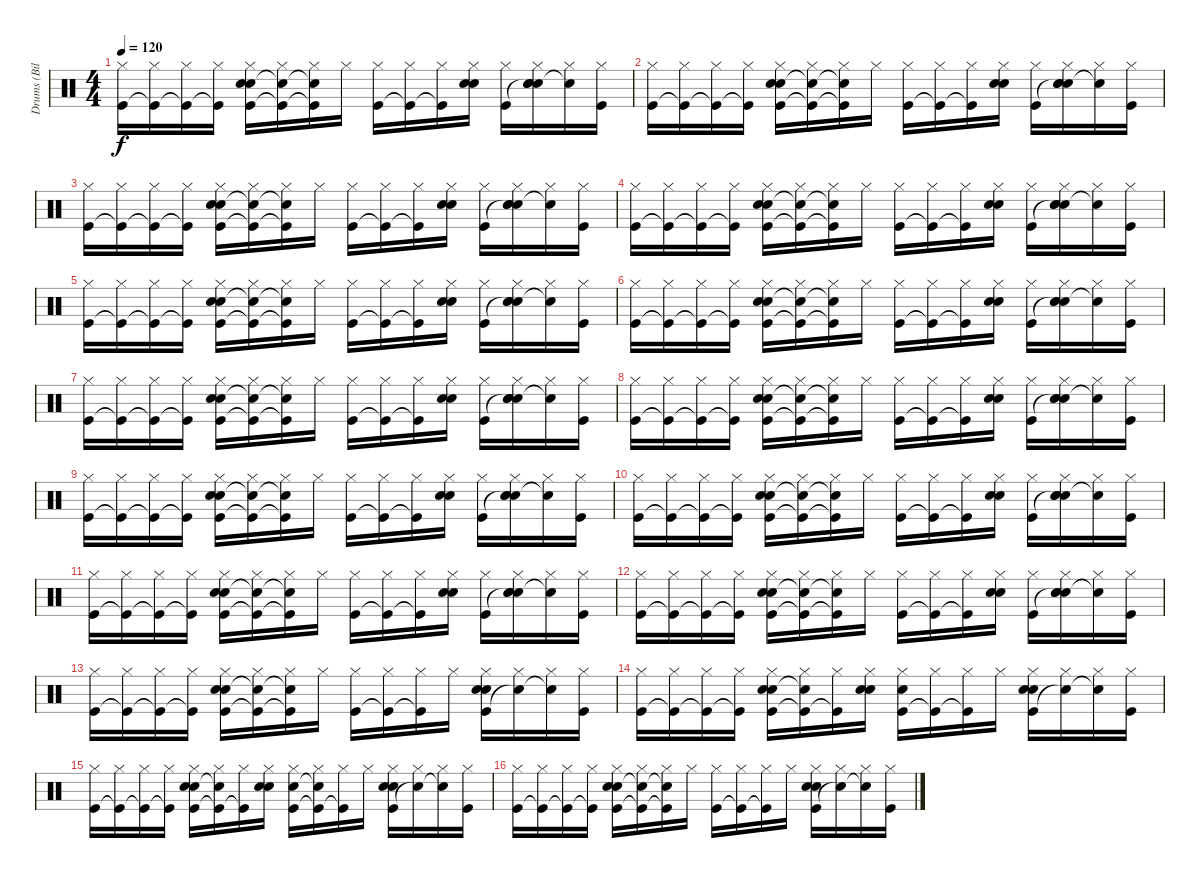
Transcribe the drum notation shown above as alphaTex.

\track ("Drums (Bilerman)" "Drums (Bil") {instrument percussion}
\staff {score}
\articulation defaults
\ts (4 4)
\tempo 120
\clef neutral
\ks c
("Kick (hit)" "Hi-Hat (closed)").16{dy f} ("Kick (hit)"{t} "Hi-Hat (closed)").16 ("Kick (hit)"{t} "Hi-Hat (closed)").16 ("Kick (hit)"{t} "Hi-Hat (closed)").16 ("Kick (hit)" "Snare (hit) 2" "Snare (hit) 2" "Hi-Hat (closed)").16 ("Kick (hit)"{t} "Snare (hit) 2"{t} "Hi-Hat (closed)").16 ("Kick (hit)"{t} "Snare (hit) 2"{t} "Hi-Hat (closed)").16 "Hi-Hat (closed)".16 ("Kick (hit)" "Hi-Hat (closed)").16 ("Kick (hit)"{t} "Hi-Hat (closed)").16 ("Kick (hit)"{t} "Hi-Hat (closed)").16 ("Snare (hit) 2" "Snare (hit) 2" "Hi-Hat (closed)").16 ("Kick (hit)" "Hi-Hat (closed)").16 ("Snare (hit)"{t} "Snare (hit) 2" "Snare (hit) 2" "Hi-Hat (closed)").16 ("Snare (hit) 2"{t} "Hi-Hat (closed)").16 ("Kick (hit)" "Hi-Hat (closed)").16 |
("Kick (hit)" "Hi-Hat (closed)").16 ("Kick (hit)"{t} "Hi-Hat (closed)").16 ("Kick (hit)"{t} "Hi-Hat (closed)").16 ("Kick (hit)"{t} "Hi-Hat (closed)").16 ("Kick (hit)" "Snare (hit) 2" "Snare (hit) 2" "Hi-Hat (closed)").16 ("Kick (hit)"{t} "Snare (hit) 2"{t} "Hi-Hat (closed)").16 ("Kick (hit)"{t} "Snare (hit) 2"{t} "Hi-Hat (closed)").16 "Hi-Hat (closed)".16 ("Kick (hit)" "Hi-Hat (closed)").16 ("Kick (hit)"{t} "Hi-Hat (closed)").16 ("Kick (hit)"{t} "Hi-Hat (closed)").16 ("Snare (hit) 2" "Snare (hit) 2" "Hi-Hat (closed)").16 ("Kick (hit)" "Hi-Hat (closed)").16 ("Snare (hit)"{t} "Snare (hit) 2" "Snare (hit) 2" "Hi-Hat (closed)").16 ("Snare (hit) 2"{t} "Hi-Hat (closed)").16 ("Kick (hit)" "Hi-Hat (closed)").16 |
("Kick (hit)" "Hi-Hat (closed)").16 ("Kick (hit)"{t} "Hi-Hat (closed)").16 ("Kick (hit)"{t} "Hi-Hat (closed)").16 ("Kick (hit)"{t} "Hi-Hat (closed)").16 ("Kick (hit)" "Snare (hit) 2" "Snare (hit) 2" "Hi-Hat (closed)").16 ("Kick (hit)"{t} "Snare (hit) 2"{t} "Hi-Hat (closed)").16 ("Kick (hit)"{t} "Snare (hit) 2"{t} "Hi-Hat (closed)").16 "Hi-Hat (closed)".16 ("Kick (hit)" "Hi-Hat (closed)").16 ("Kick (hit)"{t} "Hi-Hat (closed)").16 ("Kick (hit)"{t} "Hi-Hat (closed)").16 ("Snare (hit) 2" "Snare (hit) 2" "Hi-Hat (closed)").16 ("Kick (hit)" "Hi-Hat (closed)").16 ("Snare (hit)"{t} "Snare (hit) 2" "Snare (hit) 2" "Hi-Hat (closed)").16 ("Snare (hit) 2"{t} "Hi-Hat (closed)").16 ("Kick (hit)" "Hi-Hat (closed)").16 |
("Kick (hit)" "Hi-Hat (closed)").16 ("Kick (hit)"{t} "Hi-Hat (closed)").16 ("Kick (hit)"{t} "Hi-Hat (closed)").16 ("Kick (hit)"{t} "Hi-Hat (closed)").16 ("Kick (hit)" "Snare (hit) 2" "Snare (hit) 2" "Hi-Hat (closed)").16 ("Kick (hit)"{t} "Snare (hit) 2"{t} "Hi-Hat (closed)").16 ("Kick (hit)"{t} "Snare (hit) 2"{t} "Hi-Hat (closed)").16 "Hi-Hat (closed)".16 ("Kick (hit)" "Hi-Hat (closed)").16 ("Kick (hit)"{t} "Hi-Hat (closed)").16 ("Kick (hit)"{t} "Hi-Hat (closed)").16 ("Snare (hit) 2" "Snare (hit) 2" "Hi-Hat (closed)").16 ("Kick (hit)" "Hi-Hat (closed)").16 ("Snare (hit)"{t} "Snare (hit) 2" "Snare (hit) 2" "Hi-Hat (closed)").16 ("Snare (hit) 2"{t} "Hi-Hat (closed)").16 ("Kick (hit)" "Hi-Hat (closed)").16 |
("Kick (hit)" "Hi-Hat (closed)").16 ("Kick (hit)"{t} "Hi-Hat (closed)").16 ("Kick (hit)"{t} "Hi-Hat (closed)").16 ("Kick (hit)"{t} "Hi-Hat (closed)").16 ("Kick (hit)" "Snare (hit) 2" "Snare (hit) 2" "Hi-Hat (closed)").16 ("Kick (hit)"{t} "Snare (hit) 2"{t} "Hi-Hat (closed)").16 ("Kick (hit)"{t} "Snare (hit) 2"{t} "Hi-Hat (closed)").16 "Hi-Hat (closed)".16 ("Kick (hit)" "Hi-Hat (closed)").16 ("Kick (hit)"{t} "Hi-Hat (closed)").16 ("Kick (hit)"{t} "Hi-Hat (closed)").16 ("Snare (hit) 2" "Snare (hit) 2" "Hi-Hat (closed)").16 ("Kick (hit)" "Hi-Hat (closed)").16 ("Snare (hit)"{t} "Snare (hit) 2" "Snare (hit) 2" "Hi-Hat (closed)").16 ("Snare (hit) 2"{t} "Hi-Hat (closed)").16 ("Kick (hit)" "Hi-Hat (closed)").16 |
("Kick (hit)" "Hi-Hat (closed)").16 ("Kick (hit)"{t} "Hi-Hat (closed)").16 ("Kick (hit)"{t} "Hi-Hat (closed)").16 ("Kick (hit)"{t} "Hi-Hat (closed)").16 ("Kick (hit)" "Snare (hit) 2" "Snare (hit) 2" "Hi-Hat (closed)").16 ("Kick (hit)"{t} "Snare (hit) 2"{t} "Hi-Hat (closed)").16 ("Kick (hit)"{t} "Snare (hit) 2"{t} "Hi-Hat (closed)").16 "Hi-Hat (closed)".16 ("Kick (hit)" "Hi-Hat (closed)").16 ("Kick (hit)"{t} "Hi-Hat (closed)").16 ("Kick (hit)"{t} "Hi-Hat (closed)").16 ("Snare (hit) 2" "Snare (hit) 2" "Hi-Hat (closed)").16 ("Kick (hit)" "Hi-Hat (closed)").16 ("Snare (hit)"{t} "Snare (hit) 2" "Snare (hit) 2" "Hi-Hat (closed)").16 ("Snare (hit) 2"{t} "Hi-Hat (closed)").16 ("Kick (hit)" "Hi-Hat (closed)").16 |
("Kick (hit)" "Hi-Hat (closed)").16 ("Kick (hit)"{t} "Hi-Hat (closed)").16 ("Kick (hit)"{t} "Hi-Hat (closed)").16 ("Kick (hit)"{t} "Hi-Hat (closed)").16 ("Kick (hit)" "Snare (hit) 2" "Snare (hit) 2" "Hi-Hat (closed)").16 ("Kick (hit)"{t} "Snare (hit) 2"{t} "Hi-Hat (closed)").16 ("Kick (hit)"{t} "Snare (hit) 2"{t} "Hi-Hat (closed)").16 "Hi-Hat (closed)".16 ("Kick (hit)" "Hi-Hat (closed)").16 ("Kick (hit)"{t} "Hi-Hat (closed)").16 ("Kick (hit)"{t} "Hi-Hat (closed)").16 ("Snare (hit) 2" "Snare (hit) 2" "Hi-Hat (closed)").16 ("Kick (hit)" "Hi-Hat (closed)").16 ("Snare (hit)"{t} "Snare (hit) 2" "Snare (hit) 2" "Hi-Hat (closed)").16 ("Snare (hit) 2"{t} "Hi-Hat (closed)").16 ("Kick (hit)" "Hi-Hat (closed)").16 |
("Kick (hit)" "Hi-Hat (closed)").16 ("Kick (hit)"{t} "Hi-Hat (closed)").16 ("Kick (hit)"{t} "Hi-Hat (closed)").16 ("Kick (hit)"{t} "Hi-Hat (closed)").16 ("Kick (hit)" "Snare (hit) 2" "Snare (hit) 2" "Hi-Hat (closed)").16 ("Kick (hit)"{t} "Snare (hit) 2"{t} "Hi-Hat (closed)").16 ("Kick (hit)"{t} "Snare (hit) 2"{t} "Hi-Hat (closed)").16 "Hi-Hat (closed)".16 ("Kick (hit)" "Hi-Hat (closed)").16 ("Kick (hit)"{t} "Hi-Hat (closed)").16 ("Kick (hit)"{t} "Hi-Hat (closed)").16 ("Snare (hit) 2" "Snare (hit) 2" "Hi-Hat (closed)").16 ("Kick (hit)" "Hi-Hat (closed)").16 ("Snare (hit)"{t} "Snare (hit) 2" "Snare (hit) 2" "Hi-Hat (closed)").16 ("Snare (hit) 2"{t} "Hi-Hat (closed)").16 ("Kick (hit)" "Hi-Hat (closed)").16 |
("Kick (hit)" "Hi-Hat (closed)").16 ("Kick (hit)"{t} "Hi-Hat (closed)").16 ("Kick (hit)"{t} "Hi-Hat (closed)").16 ("Kick (hit)"{t} "Hi-Hat (closed)").16 ("Kick (hit)" "Snare (hit) 2" "Snare (hit) 2" "Hi-Hat (closed)").16 ("Kick (hit)"{t} "Snare (hit) 2"{t} "Hi-Hat (closed)").16 ("Kick (hit)"{t} "Snare (hit) 2"{t} "Hi-Hat (closed)").16 "Hi-Hat (closed)".16 ("Kick (hit)" "Hi-Hat (closed)").16 ("Kick (hit)"{t} "Hi-Hat (closed)").16 ("Kick (hit)"{t} "Hi-Hat (closed)").16 ("Snare (hit) 2" "Snare (hit) 2" "Hi-Hat (closed)").16 ("Kick (hit)" "Hi-Hat (closed)").16 ("Snare (hit)"{t} "Snare (hit) 2" "Snare (hit) 2" "Hi-Hat (closed)").16 ("Snare (hit) 2"{t} "Hi-Hat (closed)").16 ("Kick (hit)" "Hi-Hat (closed)").16 |
("Kick (hit)" "Hi-Hat (closed)").16 ("Kick (hit)"{t} "Hi-Hat (closed)").16 ("Kick (hit)"{t} "Hi-Hat (closed)").16 ("Kick (hit)"{t} "Hi-Hat (closed)").16 ("Kick (hit)" "Snare (hit) 2" "Snare (hit) 2" "Hi-Hat (closed)").16 ("Kick (hit)"{t} "Snare (hit) 2"{t} "Hi-Hat (closed)").16 ("Kick (hit)"{t} "Snare (hit) 2"{t} "Hi-Hat (closed)").16 "Hi-Hat (closed)".16 ("Kick (hit)" "Hi-Hat (closed)").16 ("Kick (hit)"{t} "Hi-Hat (closed)").16 ("Kick (hit)"{t} "Hi-Hat (closed)").16 ("Snare (hit) 2" "Snare (hit) 2" "Hi-Hat (closed)").16 ("Kick (hit)" "Hi-Hat (closed)").16 ("Snare (hit)"{t} "Snare (hit) 2" "Snare (hit) 2" "Hi-Hat (closed)").16 ("Snare (hit) 2"{t} "Hi-Hat (closed)").16 ("Kick (hit)" "Hi-Hat (closed)").16 |
("Kick (hit)" "Hi-Hat (closed)").16 ("Kick (hit)"{t} "Hi-Hat (closed)").16 ("Kick (hit)"{t} "Hi-Hat (closed)").16 ("Kick (hit)"{t} "Hi-Hat (closed)").16 ("Kick (hit)" "Snare (hit) 2" "Snare (hit) 2" "Hi-Hat (closed)").16 ("Kick (hit)"{t} "Snare (hit) 2"{t} "Hi-Hat (closed)").16 ("Kick (hit)"{t} "Snare (hit) 2"{t} "Hi-Hat (closed)").16 "Hi-Hat (closed)".16 ("Kick (hit)" "Hi-Hat (closed)").16 ("Kick (hit)"{t} "Hi-Hat (closed)").16 ("Kick (hit)"{t} "Hi-Hat (closed)").16 ("Snare (hit) 2" "Snare (hit) 2" "Hi-Hat (closed)").16 ("Kick (hit)" "Hi-Hat (closed)").16 ("Snare (hit)"{t} "Snare (hit) 2" "Snare (hit) 2" "Hi-Hat (closed)").16 ("Snare (hit) 2"{t} "Hi-Hat (closed)").16 ("Kick (hit)" "Hi-Hat (closed)").16 |
("Kick (hit)" "Hi-Hat (closed)").16 ("Kick (hit)"{t} "Hi-Hat (closed)").16 ("Kick (hit)"{t} "Hi-Hat (closed)").16 ("Kick (hit)"{t} "Hi-Hat (closed)").16 ("Kick (hit)" "Snare (hit) 2" "Snare (hit) 2" "Hi-Hat (closed)").16 ("Kick (hit)"{t} "Snare (hit) 2"{t} "Hi-Hat (closed)").16 ("Kick (hit)"{t} "Snare (hit) 2"{t} "Hi-Hat (closed)").16 "Hi-Hat (closed)".16 ("Kick (hit)" "Hi-Hat (closed)").16 ("Kick (hit)"{t} "Hi-Hat (closed)").16 ("Kick (hit)"{t} "Hi-Hat (closed)").16 ("Snare (hit) 2" "Snare (hit) 2" "Hi-Hat (closed)").16 ("Kick (hit)" "Hi-Hat (closed)").16 ("Snare (hit)"{t} "Snare (hit) 2" "Snare (hit) 2" "Hi-Hat (closed)").16 ("Snare (hit) 2"{t} "Hi-Hat (closed)").16 ("Kick (hit)" "Hi-Hat (closed)").16 |
("Kick (hit)" "Hi-Hat (closed)").16 ("Kick (hit)"{t} "Hi-Hat (closed)").16 ("Kick (hit)"{t} "Hi-Hat (closed)").16 ("Kick (hit)"{t} "Hi-Hat (closed)").16 ("Kick (hit)" "Snare (hit) 2" "Snare (hit) 2" "Hi-Hat (closed)").16 ("Kick (hit)"{t} "Snare (hit) 2"{t} "Hi-Hat (closed)").16 ("Kick (hit)"{t} "Snare (hit) 2"{t} "Hi-Hat (closed)").16 "Hi-Hat (closed)".16 ("Kick (hit)" "Hi-Hat (closed)").16 ("Kick (hit)"{t} "Hi-Hat (closed)").16 ("Kick (hit)"{t} "Hi-Hat (closed)").16 "Hi-Hat (closed)".16 ("Kick (hit)" "Snare (hit) 2" "Snare (hit) 2" "Hi-Hat (closed)").16 ("Snare (hit)"{t} "Hi-Hat (closed)").16 ("Snare (hit) 2"{t} "Hi-Hat (closed)").16 ("Kick (hit)" "Hi-Hat (closed)").16 |
("Kick (hit)" "Hi-Hat (closed)").16 ("Kick (hit)"{t} "Hi-Hat (closed)").16 ("Kick (hit)"{t} "Hi-Hat (closed)").16 ("Kick (hit)"{t} "Hi-Hat (closed)").16 ("Kick (hit)" "Snare (hit) 2" "Snare (hit) 2" "Hi-Hat (closed)").16 ("Kick (hit)"{t} "Snare (hit) 2"{t} "Hi-Hat (closed)").16 ("Kick (hit)"{t} "Hi-Hat (closed)").16 ("Snare (hit) 2" "Snare (hit) 2" "Hi-Hat (closed)").16 ("Kick (hit)" "Snare (hit) 2" "Hi-Hat (closed)").16 ("Kick (hit)"{t} "Hi-Hat (closed)").16 ("Kick (hit)"{t} "Hi-Hat (closed)").16 "Hi-Hat (closed)".16 ("Kick (hit)" "Snare (hit) 2" "Snare (hit) 2" "Hi-Hat (closed)").16 ("Snare (hit)"{t} "Hi-Hat (closed)").16 ("Snare (hit) 2"{t} "Hi-Hat (closed)").16 ("Kick (hit)" "Hi-Hat (closed)").16 |
("Kick (hit)" "Hi-Hat (closed)").16 ("Kick (hit)"{t} "Hi-Hat (closed)").16 ("Kick (hit)"{t} "Hi-Hat (closed)").16 ("Kick (hit)"{t} "Hi-Hat (closed)").16 ("Kick (hit)" "Snare (hit) 2" "Snare (hit) 2" "Hi-Hat (closed)").16 ("Kick (hit)"{t} "Snare (hit) 2"{t} "Hi-Hat (closed)").16 ("Kick (hit)"{t} "Hi-Hat (closed)").16 ("Snare (hit) 2" "Snare (hit) 2" "Hi-Hat (closed)").16 ("Kick (hit)" "Snare (hit) 2" "Hi-Hat (closed)").16 ("Kick (hit)"{t} "Snare (hit)"{t} "Hi-Hat (closed)").16 ("Kick (hit)"{t} "Hi-Hat (closed)").16 "Hi-Hat (closed)".16 ("Kick (hit)" "Snare (hit) 2" "Snare (hit) 2" "Hi-Hat (closed)").16 ("Snare (hit)"{t} "Hi-Hat (closed)").16 ("Snare (hit) 2"{t} "Hi-Hat (closed)").16 ("Kick (hit)" "Hi-Hat (closed)").16 |
("Kick (hit)" "Hi-Hat (closed)").16 ("Kick (hit)"{t} "Hi-Hat (closed)").16 ("Kick (hit)"{t} "Hi-Hat (closed)").16 ("Kick (hit)"{t} "Hi-Hat (closed)").16 ("Kick (hit)" "Snare (hit) 2" "Snare (hit) 2" "Hi-Hat (closed)").16 ("Kick (hit)"{t} "Snare (hit) 2"{t} "Hi-Hat (closed)").16 ("Kick (hit)"{t} "Snare (hit) 2"{t} "Hi-Hat (closed)").16 "Hi-Hat (closed)".16 ("Kick (hit)" "Hi-Hat (closed)").16 ("Kick (hit)"{t} "Hi-Hat (closed)").16 ("Kick (hit)"{t} "Hi-Hat (closed)").16 "Hi-Hat (closed)".16 ("Kick (hit)" "Snare (hit) 2" "Snare (hit) 2" "Hi-Hat (closed)").16 ("Snare (hit)"{t} "Hi-Hat (closed)").16 ("Snare (hit) 2"{t} "Hi-Hat (closed)").16 ("Kick (hit)" "Hi-Hat (closed)").16
